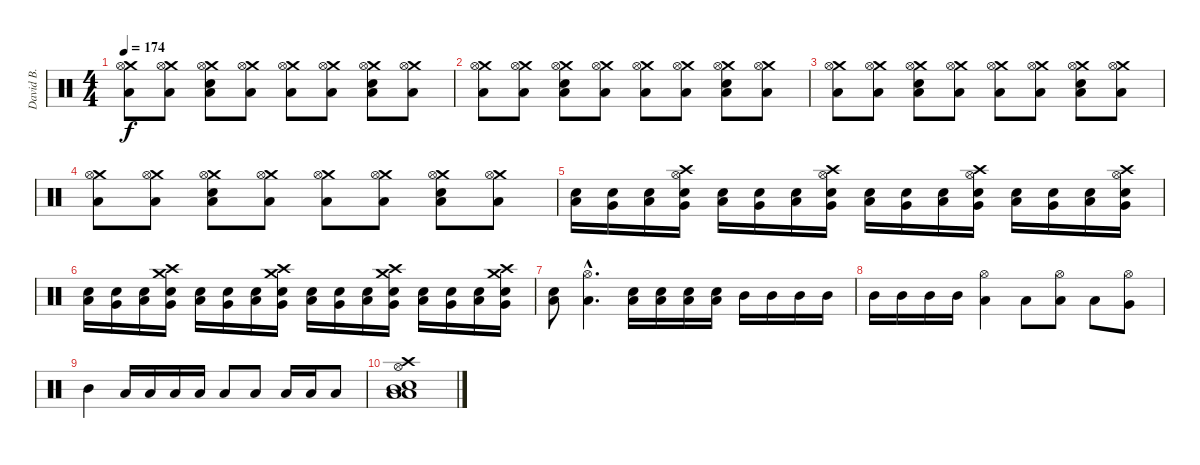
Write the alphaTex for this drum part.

\track ("David B." "David B.") {instrument percussion}
\staff {score}
\articulation defaults
\ts (4 4)
\tempo 174
\clef neutral
\ks c
("Crash medium (hit)" "Hi-Hat (open)" "Low Floor Tom (hit)").8{dy f} ("Crash medium (hit)" "Hi-Hat (open)" "Low Floor Tom (hit)").8 ("Crash medium (hit)" "Hi-Hat (open)" "Electric Snare (hit)" "Low Floor Tom (hit)").8 ("Crash medium (hit)" "Hi-Hat (open)" "Low Floor Tom (hit)").8 ("Crash medium (hit)" "Hi-Hat (open)" "Low Floor Tom (hit)").8 ("Crash medium (hit)" "Hi-Hat (open)" "Low Floor Tom (hit)").8 ("Crash medium (hit)" "Hi-Hat (open)" "Electric Snare (hit)" "Low Floor Tom (hit)").8 ("Crash medium (hit)" "Hi-Hat (open)" "Low Floor Tom (hit)").8 |
("Crash medium (hit)" "Hi-Hat (open)" "Low Floor Tom (hit)").8 ("Crash medium (hit)" "Hi-Hat (open)" "Low Floor Tom (hit)").8 ("Crash medium (hit)" "Hi-Hat (open)" "Electric Snare (hit)" "Low Floor Tom (hit)").8 ("Crash medium (hit)" "Hi-Hat (open)" "Low Floor Tom (hit)").8 ("Crash medium (hit)" "Hi-Hat (open)" "Low Floor Tom (hit)").8 ("Crash medium (hit)" "Hi-Hat (open)" "Low Floor Tom (hit)").8 ("Crash medium (hit)" "Hi-Hat (open)" "Electric Snare (hit)" "Low Floor Tom (hit)").8 ("Crash medium (hit)" "Hi-Hat (open)" "Low Floor Tom (hit)").8 |
("Crash medium (hit)" "Hi-Hat (open)" "Low Floor Tom (hit)").8 ("Crash medium (hit)" "Hi-Hat (open)" "Low Floor Tom (hit)").8 ("Crash medium (hit)" "Hi-Hat (open)" "Electric Snare (hit)" "Low Floor Tom (hit)").8 ("Crash medium (hit)" "Hi-Hat (open)" "Low Floor Tom (hit)").8 ("Crash medium (hit)" "Hi-Hat (open)" "Low Floor Tom (hit)").8 ("Crash medium (hit)" "Hi-Hat (open)" "Low Floor Tom (hit)").8 ("Crash medium (hit)" "Hi-Hat (open)" "Electric Snare (hit)" "Low Floor Tom (hit)").8 ("Crash medium (hit)" "Hi-Hat (open)" "Low Floor Tom (hit)").8 |
("Crash medium (hit)" "Hi-Hat (open)" "Low Floor Tom (hit)").8 ("Crash medium (hit)" "Hi-Hat (open)" "Low Floor Tom (hit)").8 ("Crash medium (hit)" "Hi-Hat (open)" "Electric Snare (hit)" "Low Floor Tom (hit)").8 ("Crash medium (hit)" "Hi-Hat (open)" "Low Floor Tom (hit)").8 ("Crash medium (hit)" "Hi-Hat (open)" "Low Floor Tom (hit)").8 ("Crash medium (hit)" "Hi-Hat (open)" "Low Floor Tom (hit)").8 ("Crash medium (hit)" "Hi-Hat (open)" "Electric Snare (hit)" "Low Floor Tom (hit)").8 ("Crash medium (hit)" "Hi-Hat (open)" "Low Floor Tom (hit)").8 |
("Electric Snare (hit)" "Low Floor Tom (hit)").16 ("Electric Snare (hit)" "Very Low Tom (hit)").16 ("Electric Snare (hit)" "Low Floor Tom (hit)").16 ("Crash high (hit)" "Hi-Hat (open)" "Electric Snare (hit)" "Very Low Tom (hit)").16 ("Electric Snare (hit)" "Low Floor Tom (hit)").16 ("Electric Snare (hit)" "Very Low Tom (hit)").16 ("Electric Snare (hit)" "Low Floor Tom (hit)").16 ("Crash high (hit)" "Hi-Hat (open)" "Electric Snare (hit)" "Very Low Tom (hit)").16 ("Electric Snare (hit)" "Low Floor Tom (hit)").16 ("Electric Snare (hit)" "Very Low Tom (hit)").16 ("Electric Snare (hit)" "Low Floor Tom (hit)").16 ("Crash high (hit)" "Hi-Hat (open)" "Electric Snare (hit)" "Very Low Tom (hit)").16 ("Electric Snare (hit)" "Low Floor Tom (hit)").16 ("Electric Snare (hit)" "Very Low Tom (hit)").16 ("Electric Snare (hit)" "Low Floor Tom (hit)").16 ("Crash high (hit)" "Hi-Hat (open)" "Electric Snare (hit)" "Very Low Tom (hit)").16 |
("Electric Snare (hit)" "Low Floor Tom (hit)").16 ("Electric Snare (hit)" "Very Low Tom (hit)").16 ("Electric Snare (hit)" "Low Floor Tom (hit)").16 ("Crash high (hit)" "Crash medium (hit)" "Electric Snare (hit)" "Very Low Tom (hit)").16 ("Electric Snare (hit)" "Low Floor Tom (hit)").16 ("Electric Snare (hit)" "Very Low Tom (hit)").16 ("Electric Snare (hit)" "Low Floor Tom (hit)").16 ("Crash high (hit)" "Crash medium (hit)" "Electric Snare (hit)" "Very Low Tom (hit)").16 ("Electric Snare (hit)" "Low Floor Tom (hit)").16 ("Electric Snare (hit)" "Very Low Tom (hit)").16 ("Electric Snare (hit)" "Low Floor Tom (hit)").16 ("Crash high (hit)" "Crash medium (hit)" "Electric Snare (hit)" "Very Low Tom (hit)").16 ("Electric Snare (hit)" "Low Floor Tom (hit)").16 ("Electric Snare (hit)" "Very Low Tom (hit)").16 ("Electric Snare (hit)" "Low Floor Tom (hit)").16 ("Crash high (hit)" "Crash medium (hit)" "Electric Snare (hit)" "Very Low Tom (hit)").16 |
("Electric Snare (hit)" "Low Tom (hit)").8 ("Hi-Hat (open)"{hac} "Low Tom (hit)"{hac}).4{d} ("Electric Snare (hit)" "Low Floor Tom (hit)").16 ("Electric Snare (hit)" "Low Floor Tom (hit)").16 ("Electric Snare (hit)" "Low Floor Tom (hit)").16 ("Electric Snare (hit)" "Low Floor Tom (hit)").16 "Mid Tom (hit)".16 "Mid Tom (hit)".16 "Mid Tom (hit)".16 "Mid Tom (hit)".16 |
"Mid Tom (hit)".16 "Mid Tom (hit)".16 "Mid Tom (hit)".16 "Mid Tom (hit)".16 ("Hi-Hat (open)" "Low Tom (hit)").4 "Low Floor Tom (hit)".8 ("Hi-Hat (open)" "Low Tom (hit)").8 "Low Floor Tom (hit)".8 ("Hi-Hat (open)" "Very Low Tom (hit)").8 |
"Mid Tom (hit)".4 "Low Tom (hit)".16 "Low Tom (hit)".16 "Low Tom (hit)".16 "Low Tom (hit)".16 "Low Floor Tom (hit)".8 "Low Floor Tom (hit)".8 "Low Tom (hit)".16 "Low Tom (hit)".16 "Low Floor Tom (hit)".8 |
("Crash high (hit)" "Hi-Hat (open)" "Low Floor Tom (hit)" "Mid Tom (hit)" "Electric Snare (hit)" "Low Tom (hit)").1
